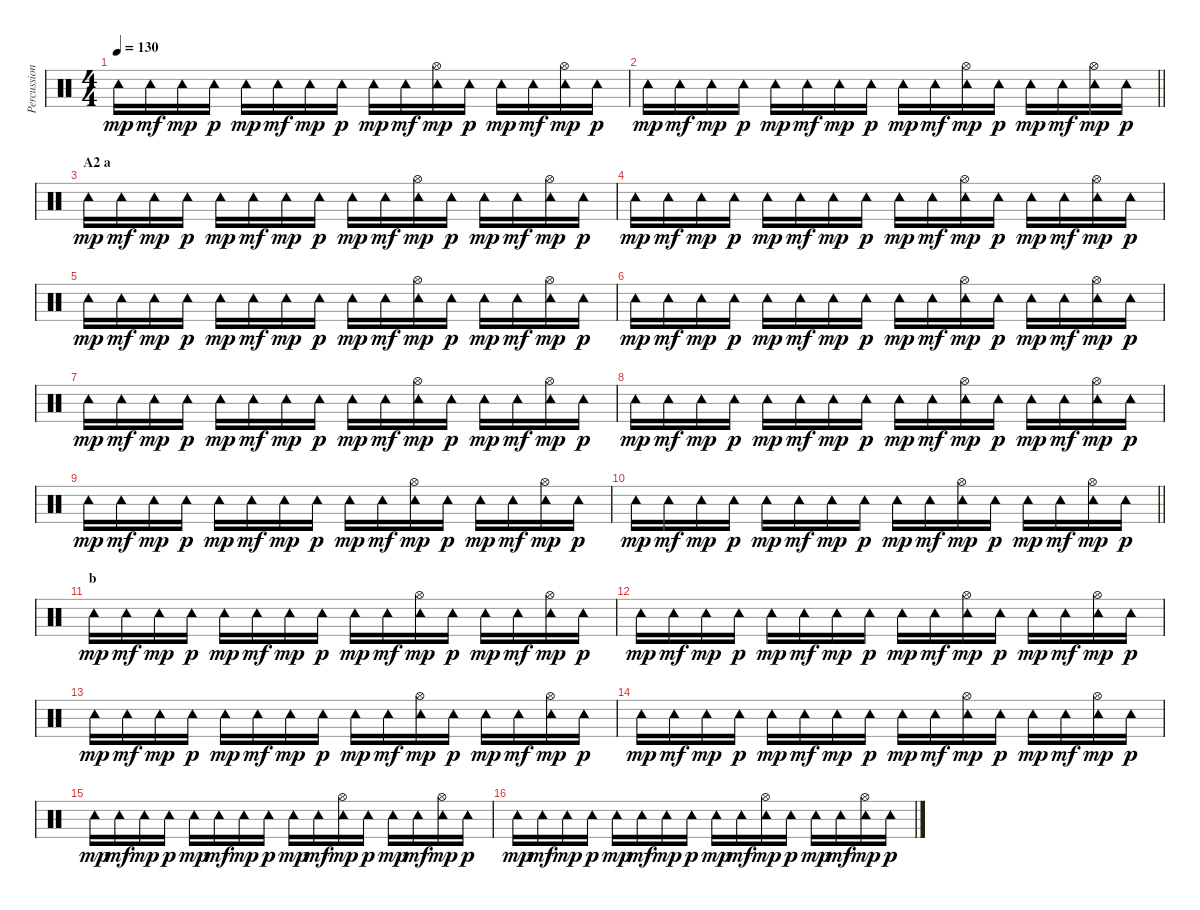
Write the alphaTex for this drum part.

\track ("Percussion (Programmed)" "Percussion") {instrument percussion}
\staff {score}
\articulation defaults
\ts (4 4)
\tempo 130
\clef neutral
\ks c "Tambourine (hit)".16{dy mp} "Tambourine (hit)".16{dy mf} "Tambourine (hit)".16{dy mp} "Tambourine (hit)".16{dy p} "Tambourine (hit)".16{dy mp} "Tambourine (hit)".16{dy mf} "Tambourine (hit)".16{dy mp} "Tambourine (hit)".16{dy p} "Tambourine (hit)".16{dy mp} "Tambourine (hit)".16{dy mf}
("Tambourine (hit)" "Hi-Hat (open)").16{dy mp} "Tambourine (hit)".16{dy p} "Tambourine (hit)".16{dy mp} "Tambourine (hit)".16{dy mf} ("Tambourine (hit)" "Hi-Hat (open)").16{dy mp} "Tambourine (hit)".16{dy p} |
\barLineRight lightlight "Tambourine (hit)".16{dy mp} "Tambourine (hit)".16{dy mf} "Tambourine (hit)".16{dy mp} "Tambourine (hit)".16{dy p} "Tambourine (hit)".16{dy mp} "Tambourine (hit)".16{dy mf} "Tambourine (hit)".16{dy mp} "Tambourine (hit)".16{dy p} "Tambourine (hit)".16{dy mp} "Tambourine (hit)".16{dy mf}
("Tambourine (hit)" "Hi-Hat (open)").16{dy mp} "Tambourine (hit)".16{dy p} "Tambourine (hit)".16{dy mp} "Tambourine (hit)".16{dy mf} ("Tambourine (hit)" "Hi-Hat (open)").16{dy mp} "Tambourine (hit)".16{dy p} |
\section ("" "A2 a")
"Tambourine (hit)".16{dy mp} "Tambourine (hit)".16{dy mf} "Tambourine (hit)".16{dy mp} "Tambourine (hit)".16{dy p} "Tambourine (hit)".16{dy mp} "Tambourine (hit)".16{dy mf} "Tambourine (hit)".16{dy mp} "Tambourine (hit)".16{dy p} "Tambourine (hit)".16{dy mp} "Tambourine (hit)".16{dy mf} ("Tambourine (hit)" "Hi-Hat (open)").16{dy mp} "Tambourine (hit)".16{dy p} "Tambourine (hit)".16{dy mp} "Tambourine (hit)".16{dy mf} ("Tambourine (hit)" "Hi-Hat (open)").16{dy mp} "Tambourine (hit)".16{dy p} |
"Tambourine (hit)".16{dy mp} "Tambourine (hit)".16{dy mf} "Tambourine (hit)".16{dy mp} "Tambourine (hit)".16{dy p} "Tambourine (hit)".16{dy mp} "Tambourine (hit)".16{dy mf} "Tambourine (hit)".16{dy mp} "Tambourine (hit)".16{dy p} "Tambourine (hit)".16{dy mp} "Tambourine (hit)".16{dy mf} ("Tambourine (hit)" "Hi-Hat (open)").16{dy mp} "Tambourine (hit)".16{dy p} "Tambourine (hit)".16{dy mp} "Tambourine (hit)".16{dy mf} ("Tambourine (hit)" "Hi-Hat (open)").16{dy mp} "Tambourine (hit)".16{dy p} |
"Tambourine (hit)".16{dy mp} "Tambourine (hit)".16{dy mf} "Tambourine (hit)".16{dy mp} "Tambourine (hit)".16{dy p} "Tambourine (hit)".16{dy mp} "Tambourine (hit)".16{dy mf} "Tambourine (hit)".16{dy mp} "Tambourine (hit)".16{dy p} "Tambourine (hit)".16{dy mp} "Tambourine (hit)".16{dy mf} ("Tambourine (hit)" "Hi-Hat (open)").16{dy mp} "Tambourine (hit)".16{dy p} "Tambourine (hit)".16{dy mp} "Tambourine (hit)".16{dy mf} ("Tambourine (hit)" "Hi-Hat (open)").16{dy mp} "Tambourine (hit)".16{dy p} |
"Tambourine (hit)".16{dy mp} "Tambourine (hit)".16{dy mf} "Tambourine (hit)".16{dy mp} "Tambourine (hit)".16{dy p} "Tambourine (hit)".16{dy mp} "Tambourine (hit)".16{dy mf} "Tambourine (hit)".16{dy mp} "Tambourine (hit)".16{dy p} "Tambourine (hit)".16{dy mp} "Tambourine (hit)".16{dy mf} ("Tambourine (hit)" "Hi-Hat (open)").16{dy mp} "Tambourine (hit)".16{dy p} "Tambourine (hit)".16{dy mp} "Tambourine (hit)".16{dy mf} ("Tambourine (hit)" "Hi-Hat (open)").16{dy mp} "Tambourine (hit)".16{dy p} |
"Tambourine (hit)".16{dy mp} "Tambourine (hit)".16{dy mf} "Tambourine (hit)".16{dy mp} "Tambourine (hit)".16{dy p} "Tambourine (hit)".16{dy mp} "Tambourine (hit)".16{dy mf} "Tambourine (hit)".16{dy mp} "Tambourine (hit)".16{dy p} "Tambourine (hit)".16{dy mp} "Tambourine (hit)".16{dy mf} ("Tambourine (hit)" "Hi-Hat (open)").16{dy mp} "Tambourine (hit)".16{dy p} "Tambourine (hit)".16{dy mp} "Tambourine (hit)".16{dy mf} ("Tambourine (hit)" "Hi-Hat (open)").16{dy mp} "Tambourine (hit)".16{dy p} |
"Tambourine (hit)".16{dy mp} "Tambourine (hit)".16{dy mf} "Tambourine (hit)".16{dy mp} "Tambourine (hit)".16{dy p} "Tambourine (hit)".16{dy mp} "Tambourine (hit)".16{dy mf} "Tambourine (hit)".16{dy mp} "Tambourine (hit)".16{dy p} "Tambourine (hit)".16{dy mp} "Tambourine (hit)".16{dy mf} ("Tambourine (hit)" "Hi-Hat (open)").16{dy mp} "Tambourine (hit)".16{dy p} "Tambourine (hit)".16{dy mp} "Tambourine (hit)".16{dy mf} ("Tambourine (hit)" "Hi-Hat (open)").16{dy mp} "Tambourine (hit)".16{dy p} |
"Tambourine (hit)".16{dy mp} "Tambourine (hit)".16{dy mf} "Tambourine (hit)".16{dy mp} "Tambourine (hit)".16{dy p} "Tambourine (hit)".16{dy mp} "Tambourine (hit)".16{dy mf} "Tambourine (hit)".16{dy mp} "Tambourine (hit)".16{dy p} "Tambourine (hit)".16{dy mp} "Tambourine (hit)".16{dy mf} ("Tambourine (hit)" "Hi-Hat (open)").16{dy mp} "Tambourine (hit)".16{dy p} "Tambourine (hit)".16{dy mp} "Tambourine (hit)".16{dy mf} ("Tambourine (hit)" "Hi-Hat (open)").16{dy mp} "Tambourine (hit)".16{dy p} |
\barLineRight lightlight "Tambourine (hit)".16{dy mp} "Tambourine (hit)".16{dy mf} "Tambourine (hit)".16{dy mp} "Tambourine (hit)".16{dy p} "Tambourine (hit)".16{dy mp} "Tambourine (hit)".16{dy mf} "Tambourine (hit)".16{dy mp} "Tambourine (hit)".16{dy p} "Tambourine (hit)".16{dy mp} "Tambourine (hit)".16{dy mf}
("Tambourine (hit)" "Hi-Hat (open)").16{dy mp} "Tambourine (hit)".16{dy p} "Tambourine (hit)".16{dy mp} "Tambourine (hit)".16{dy mf} ("Tambourine (hit)" "Hi-Hat (open)").16{dy mp} "Tambourine (hit)".16{dy p} |
\section ("" "b")
"Tambourine (hit)".16{dy mp} "Tambourine (hit)".16{dy mf} "Tambourine (hit)".16{dy mp} "Tambourine (hit)".16{dy p} "Tambourine (hit)".16{dy mp} "Tambourine (hit)".16{dy mf} "Tambourine (hit)".16{dy mp} "Tambourine (hit)".16{dy p} "Tambourine (hit)".16{dy mp} "Tambourine (hit)".16{dy mf} ("Tambourine (hit)" "Hi-Hat (open)").16{dy mp} "Tambourine (hit)".16{dy p} "Tambourine (hit)".16{dy mp} "Tambourine (hit)".16{dy mf} ("Tambourine (hit)" "Hi-Hat (open)").16{dy mp} "Tambourine (hit)".16{dy p} |
"Tambourine (hit)".16{dy mp} "Tambourine (hit)".16{dy mf} "Tambourine (hit)".16{dy mp} "Tambourine (hit)".16{dy p} "Tambourine (hit)".16{dy mp} "Tambourine (hit)".16{dy mf} "Tambourine (hit)".16{dy mp} "Tambourine (hit)".16{dy p} "Tambourine (hit)".16{dy mp} "Tambourine (hit)".16{dy mf} ("Tambourine (hit)" "Hi-Hat (open)").16{dy mp} "Tambourine (hit)".16{dy p} "Tambourine (hit)".16{dy mp} "Tambourine (hit)".16{dy mf} ("Tambourine (hit)" "Hi-Hat (open)").16{dy mp} "Tambourine (hit)".16{dy p} |
"Tambourine (hit)".16{dy mp} "Tambourine (hit)".16{dy mf} "Tambourine (hit)".16{dy mp} "Tambourine (hit)".16{dy p} "Tambourine (hit)".16{dy mp} "Tambourine (hit)".16{dy mf} "Tambourine (hit)".16{dy mp} "Tambourine (hit)".16{dy p} "Tambourine (hit)".16{dy mp} "Tambourine (hit)".16{dy mf} ("Tambourine (hit)" "Hi-Hat (open)").16{dy mp} "Tambourine (hit)".16{dy p} "Tambourine (hit)".16{dy mp} "Tambourine (hit)".16{dy mf} ("Tambourine (hit)" "Hi-Hat (open)").16{dy mp} "Tambourine (hit)".16{dy p} |
"Tambourine (hit)".16{dy mp} "Tambourine (hit)".16{dy mf} "Tambourine (hit)".16{dy mp} "Tambourine (hit)".16{dy p} "Tambourine (hit)".16{dy mp} "Tambourine (hit)".16{dy mf} "Tambourine (hit)".16{dy mp} "Tambourine (hit)".16{dy p} "Tambourine (hit)".16{dy mp} "Tambourine (hit)".16{dy mf} ("Tambourine (hit)" "Hi-Hat (open)").16{dy mp} "Tambourine (hit)".16{dy p} "Tambourine (hit)".16{dy mp} "Tambourine (hit)".16{dy mf} ("Tambourine (hit)" "Hi-Hat (open)").16{dy mp} "Tambourine (hit)".16{dy p} |
"Tambourine (hit)".16{dy mp} "Tambourine (hit)".16{dy mf} "Tambourine (hit)".16{dy mp} "Tambourine (hit)".16{dy p} "Tambourine (hit)".16{dy mp} "Tambourine (hit)".16{dy mf} "Tambourine (hit)".16{dy mp} "Tambourine (hit)".16{dy p} "Tambourine (hit)".16{dy mp} "Tambourine (hit)".16{dy mf} ("Tambourine (hit)" "Hi-Hat (open)").16{dy mp} "Tambourine (hit)".16{dy p} "Tambourine (hit)".16{dy mp} "Tambourine (hit)".16{dy mf} ("Tambourine (hit)" "Hi-Hat (open)").16{dy mp} "Tambourine (hit)".16{dy p} |
"Tambourine (hit)".16{dy mp} "Tambourine (hit)".16{dy mf} "Tambourine (hit)".16{dy mp} "Tambourine (hit)".16{dy p} "Tambourine (hit)".16{dy mp} "Tambourine (hit)".16{dy mf} "Tambourine (hit)".16{dy mp} "Tambourine (hit)".16{dy p} "Tambourine (hit)".16{dy mp} "Tambourine (hit)".16{dy mf} ("Tambourine (hit)" "Hi-Hat (open)").16{dy mp} "Tambourine (hit)".16{dy p} "Tambourine (hit)".16{dy mp} "Tambourine (hit)".16{dy mf} ("Tambourine (hit)" "Hi-Hat (open)").16{dy mp} "Tambourine (hit)".16{dy p}
